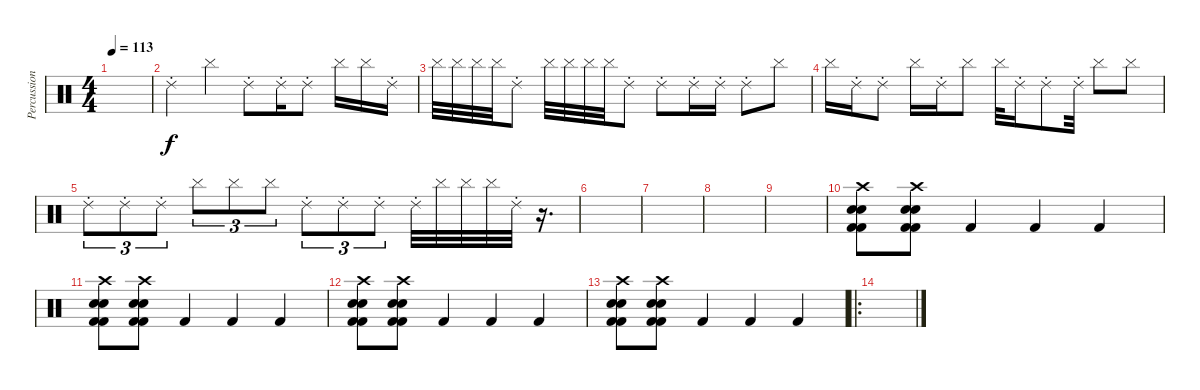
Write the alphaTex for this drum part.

\track ("Percussion" "Percussion") {instrument percussion}
\staff {score}
\articulation defaults
\ts (4 4)
\tempo 113
\clef neutral
\ks c
|
"Ride (choke) 2".4{volume 16} "Cymbal (hit)".4 "Ride (choke) 2".8 "Ride (choke) 2".16 "Ride (choke) 2".8 "Cymbal (hit)".16 "Cymbal (hit)".16 "Ride (choke) 2".16 |
"Cymbal (hit)".32 "Cymbal (hit)".32 "Cymbal (hit)".32 "Cymbal (hit)".32 "Ride (choke) 2".8 "Cymbal (hit)".32 "Cymbal (hit)".32 "Cymbal (hit)".32 "Cymbal (hit)".32 "Ride (choke) 2".8 "Ride (choke) 2".8 "Ride (choke) 2".16 "Ride (choke) 2".16 "Ride (choke) 2".8 "Cymbal (hit)".8 |
"Cymbal (hit)".16 "Ride (choke) 2".16 "Ride (choke) 2".8 "Cymbal (hit)".16 "Ride (choke) 2".16 "Cymbal (hit)".8 "Cymbal (hit)".32 "Ride (choke) 2".16 "Ride (choke) 2".8 "Ride (choke) 2".32 "Cymbal (hit)".8 "Cymbal (hit)".8 |
"Ride (choke) 2".8{tu (3 2)} "Ride (choke) 2".8{tu (3 2)} "Ride (choke) 2".8{tu (3 2)} "Cymbal (hit)".8{tu (3 2)} "Cymbal (hit)".8{tu (3 2)} "Cymbal (hit)".8{tu (3 2)} "Ride (choke) 2".8{tu (3 2)} "Ride (choke) 2".8{tu (3 2)} "Ride (choke) 2".8{tu (3 2)} "Ride (choke) 2".32 "Cymbal (hit)".32 "Cymbal (hit)".32 "Cymbal (hit)".32 "Ride (choke) 2".32 r.16{d} |
|
|
|
|
("Crash high (hit)" "Snare (hit) 2" "Snare (hit) 2" "Kick (hit) 2" "Kick (hit) 2").8 ("Crash high (hit)" "Snare (hit) 2" "Snare (hit) 2" "Kick (hit) 2" "Kick (hit) 2").8 "Kick (hit) 2".4 "Kick (hit) 2".4 "Kick (hit) 2".4 |
("Crash high (hit)" "Snare (hit) 2" "Snare (hit) 2" "Kick (hit) 2" "Kick (hit) 2").8 ("Crash high (hit)" "Snare (hit) 2" "Snare (hit) 2" "Kick (hit) 2" "Kick (hit) 2").8 "Kick (hit) 2".4 "Kick (hit) 2".4 "Kick (hit) 2".4 |
("Crash high (hit)" "Snare (hit) 2" "Snare (hit) 2" "Kick (hit) 2" "Kick (hit) 2").8 ("Crash high (hit)" "Snare (hit) 2" "Snare (hit) 2" "Kick (hit) 2" "Kick (hit) 2").8 "Kick (hit) 2".4 "Kick (hit) 2".4 "Kick (hit) 2".4 |
("Crash high (hit)" "Snare (hit) 2" "Snare (hit) 2" "Kick (hit) 2" "Kick (hit) 2").8 ("Crash high (hit)" "Snare (hit) 2" "Snare (hit) 2" "Kick (hit) 2" "Kick (hit) 2").8 "Kick (hit) 2".4 "Kick (hit) 2".4 "Kick (hit) 2".4 |
\ro
